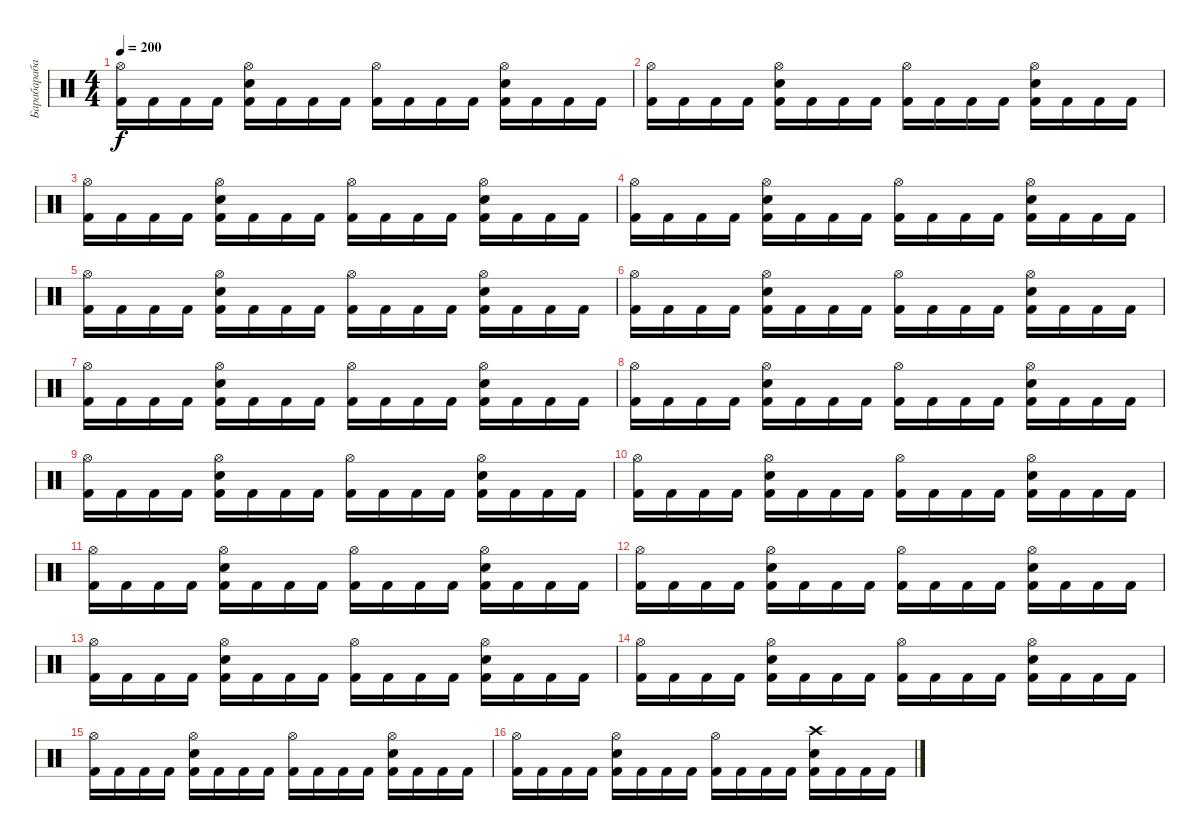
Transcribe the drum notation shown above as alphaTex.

\track ("Барабарабаны" "Барабараба") {instrument percussion}
\staff {score}
\articulation defaults
\ts (4 4)
\tempo 200
\clef neutral
\ks c
("Hi-Hat (open)" "Kick (hit) 2").16{dy f} "Kick (hit) 2".16 "Kick (hit) 2".16 "Kick (hit) 2".16 ("Hi-Hat (open)" "Electric Snare (hit)" "Kick (hit) 2").16 "Kick (hit) 2".16 "Kick (hit) 2".16 "Kick (hit) 2".16 ("Hi-Hat (open)" "Kick (hit) 2").16 "Kick (hit) 2".16 "Kick (hit) 2".16 "Kick (hit) 2".16 ("Hi-Hat (open)" "Electric Snare (hit)" "Kick (hit) 2").16 "Kick (hit) 2".16 "Kick (hit) 2".16 "Kick (hit) 2".16 |
("Hi-Hat (open)" "Kick (hit) 2").16 "Kick (hit) 2".16 "Kick (hit) 2".16 "Kick (hit) 2".16 ("Hi-Hat (open)" "Electric Snare (hit)" "Kick (hit) 2").16 "Kick (hit) 2".16 "Kick (hit) 2".16 "Kick (hit) 2".16 ("Hi-Hat (open)" "Kick (hit) 2").16 "Kick (hit) 2".16 "Kick (hit) 2".16 "Kick (hit) 2".16 ("Hi-Hat (open)" "Electric Snare (hit)" "Kick (hit) 2").16 "Kick (hit) 2".16 "Kick (hit) 2".16 "Kick (hit) 2".16 |
("Hi-Hat (open)" "Kick (hit) 2").16 "Kick (hit) 2".16 "Kick (hit) 2".16 "Kick (hit) 2".16 ("Hi-Hat (open)" "Electric Snare (hit)" "Kick (hit) 2").16 "Kick (hit) 2".16 "Kick (hit) 2".16 "Kick (hit) 2".16 ("Hi-Hat (open)" "Kick (hit) 2").16 "Kick (hit) 2".16 "Kick (hit) 2".16 "Kick (hit) 2".16 ("Hi-Hat (open)" "Electric Snare (hit)" "Kick (hit) 2").16 "Kick (hit) 2".16 "Kick (hit) 2".16 "Kick (hit) 2".16 |
("Hi-Hat (open)" "Kick (hit) 2").16 "Kick (hit) 2".16 "Kick (hit) 2".16 "Kick (hit) 2".16 ("Hi-Hat (open)" "Electric Snare (hit)" "Kick (hit) 2").16 "Kick (hit) 2".16 "Kick (hit) 2".16 "Kick (hit) 2".16 ("Hi-Hat (open)" "Kick (hit) 2").16 "Kick (hit) 2".16 "Kick (hit) 2".16 "Kick (hit) 2".16 ("Hi-Hat (open)" "Electric Snare (hit)" "Kick (hit) 2").16 "Kick (hit) 2".16 "Kick (hit) 2".16 "Kick (hit) 2".16 |
("Hi-Hat (open)" "Kick (hit) 2").16 "Kick (hit) 2".16 "Kick (hit) 2".16 "Kick (hit) 2".16 ("Hi-Hat (open)" "Electric Snare (hit)" "Kick (hit) 2").16 "Kick (hit) 2".16 "Kick (hit) 2".16 "Kick (hit) 2".16 ("Hi-Hat (open)" "Kick (hit) 2").16 "Kick (hit) 2".16 "Kick (hit) 2".16 "Kick (hit) 2".16 ("Hi-Hat (open)" "Electric Snare (hit)" "Kick (hit) 2").16 "Kick (hit) 2".16 "Kick (hit) 2".16 "Kick (hit) 2".16 |
("Hi-Hat (open)" "Kick (hit) 2").16 "Kick (hit) 2".16 "Kick (hit) 2".16 "Kick (hit) 2".16 ("Hi-Hat (open)" "Electric Snare (hit)" "Kick (hit) 2").16 "Kick (hit) 2".16 "Kick (hit) 2".16 "Kick (hit) 2".16 ("Hi-Hat (open)" "Kick (hit) 2").16 "Kick (hit) 2".16 "Kick (hit) 2".16 "Kick (hit) 2".16 ("Hi-Hat (open)" "Electric Snare (hit)" "Kick (hit) 2").16 "Kick (hit) 2".16 "Kick (hit) 2".16 "Kick (hit) 2".16 |
("Hi-Hat (open)" "Kick (hit) 2").16 "Kick (hit) 2".16 "Kick (hit) 2".16 "Kick (hit) 2".16 ("Hi-Hat (open)" "Electric Snare (hit)" "Kick (hit) 2").16 "Kick (hit) 2".16 "Kick (hit) 2".16 "Kick (hit) 2".16 ("Hi-Hat (open)" "Kick (hit) 2").16 "Kick (hit) 2".16 "Kick (hit) 2".16 "Kick (hit) 2".16 ("Hi-Hat (open)" "Electric Snare (hit)" "Kick (hit) 2").16 "Kick (hit) 2".16 "Kick (hit) 2".16 "Kick (hit) 2".16 |
("Hi-Hat (open)" "Kick (hit) 2").16 "Kick (hit) 2".16 "Kick (hit) 2".16 "Kick (hit) 2".16 ("Hi-Hat (open)" "Electric Snare (hit)" "Kick (hit) 2").16 "Kick (hit) 2".16 "Kick (hit) 2".16 "Kick (hit) 2".16 ("Hi-Hat (open)" "Kick (hit) 2").16 "Kick (hit) 2".16 "Kick (hit) 2".16 "Kick (hit) 2".16 ("Hi-Hat (open)" "Electric Snare (hit)" "Kick (hit) 2").16 "Kick (hit) 2".16 "Kick (hit) 2".16 "Kick (hit) 2".16 |
("Hi-Hat (open)" "Kick (hit) 2").16 "Kick (hit) 2".16 "Kick (hit) 2".16 "Kick (hit) 2".16 ("Hi-Hat (open)" "Electric Snare (hit)" "Kick (hit) 2").16 "Kick (hit) 2".16 "Kick (hit) 2".16 "Kick (hit) 2".16 ("Hi-Hat (open)" "Kick (hit) 2").16 "Kick (hit) 2".16 "Kick (hit) 2".16 "Kick (hit) 2".16 ("Hi-Hat (open)" "Electric Snare (hit)" "Kick (hit) 2").16 "Kick (hit) 2".16 "Kick (hit) 2".16 "Kick (hit) 2".16 |
("Hi-Hat (open)" "Kick (hit) 2").16 "Kick (hit) 2".16 "Kick (hit) 2".16 "Kick (hit) 2".16 ("Hi-Hat (open)" "Electric Snare (hit)" "Kick (hit) 2").16 "Kick (hit) 2".16 "Kick (hit) 2".16 "Kick (hit) 2".16 ("Hi-Hat (open)" "Kick (hit) 2").16 "Kick (hit) 2".16 "Kick (hit) 2".16 "Kick (hit) 2".16 ("Hi-Hat (open)" "Electric Snare (hit)" "Kick (hit) 2").16 "Kick (hit) 2".16 "Kick (hit) 2".16 "Kick (hit) 2".16 |
("Hi-Hat (open)" "Kick (hit) 2").16 "Kick (hit) 2".16 "Kick (hit) 2".16 "Kick (hit) 2".16 ("Hi-Hat (open)" "Electric Snare (hit)" "Kick (hit) 2").16 "Kick (hit) 2".16 "Kick (hit) 2".16 "Kick (hit) 2".16 ("Hi-Hat (open)" "Kick (hit) 2").16 "Kick (hit) 2".16 "Kick (hit) 2".16 "Kick (hit) 2".16 ("Hi-Hat (open)" "Electric Snare (hit)" "Kick (hit) 2").16 "Kick (hit) 2".16 "Kick (hit) 2".16 "Kick (hit) 2".16 |
("Hi-Hat (open)" "Kick (hit) 2").16 "Kick (hit) 2".16 "Kick (hit) 2".16 "Kick (hit) 2".16 ("Hi-Hat (open)" "Electric Snare (hit)" "Kick (hit) 2").16 "Kick (hit) 2".16 "Kick (hit) 2".16 "Kick (hit) 2".16 ("Hi-Hat (open)" "Kick (hit) 2").16 "Kick (hit) 2".16 "Kick (hit) 2".16 "Kick (hit) 2".16 ("Hi-Hat (open)" "Electric Snare (hit)" "Kick (hit) 2").16 "Kick (hit) 2".16 "Kick (hit) 2".16 "Kick (hit) 2".16 |
("Hi-Hat (open)" "Kick (hit) 2").16 "Kick (hit) 2".16 "Kick (hit) 2".16 "Kick (hit) 2".16 ("Hi-Hat (open)" "Electric Snare (hit)" "Kick (hit) 2").16 "Kick (hit) 2".16 "Kick (hit) 2".16 "Kick (hit) 2".16 ("Hi-Hat (open)" "Kick (hit) 2").16 "Kick (hit) 2".16 "Kick (hit) 2".16 "Kick (hit) 2".16 ("Hi-Hat (open)" "Electric Snare (hit)" "Kick (hit) 2").16 "Kick (hit) 2".16 "Kick (hit) 2".16 "Kick (hit) 2".16 |
("Hi-Hat (open)" "Kick (hit) 2").16 "Kick (hit) 2".16 "Kick (hit) 2".16 "Kick (hit) 2".16 ("Hi-Hat (open)" "Electric Snare (hit)" "Kick (hit) 2").16 "Kick (hit) 2".16 "Kick (hit) 2".16 "Kick (hit) 2".16 ("Hi-Hat (open)" "Kick (hit) 2").16 "Kick (hit) 2".16 "Kick (hit) 2".16 "Kick (hit) 2".16 ("Hi-Hat (open)" "Electric Snare (hit)" "Kick (hit) 2").16 "Kick (hit) 2".16 "Kick (hit) 2".16 "Kick (hit) 2".16 |
("Hi-Hat (open)" "Kick (hit) 2").16 "Kick (hit) 2".16 "Kick (hit) 2".16 "Kick (hit) 2".16 ("Hi-Hat (open)" "Electric Snare (hit)" "Kick (hit) 2").16 "Kick (hit) 2".16 "Kick (hit) 2".16 "Kick (hit) 2".16 ("Hi-Hat (open)" "Kick (hit) 2").16 "Kick (hit) 2".16 "Kick (hit) 2".16 "Kick (hit) 2".16 ("Hi-Hat (open)" "Electric Snare (hit)" "Kick (hit) 2").16 "Kick (hit) 2".16 "Kick (hit) 2".16 "Kick (hit) 2".16 |
("Hi-Hat (open)" "Kick (hit) 2").16 "Kick (hit) 2".16 "Kick (hit) 2".16 "Kick (hit) 2".16 ("Hi-Hat (open)" "Electric Snare (hit)" "Kick (hit) 2").16 "Kick (hit) 2".16 "Kick (hit) 2".16 "Kick (hit) 2".16 ("Hi-Hat (open)" "Kick (hit) 2").16 "Kick (hit) 2".16 "Kick (hit) 2".16 "Kick (hit) 2".16 ("Crash high (hit)" "Electric Snare (hit)" "Kick (hit) 2").16 "Kick (hit) 2".16 "Kick (hit) 2".16 "Kick (hit) 2".16
